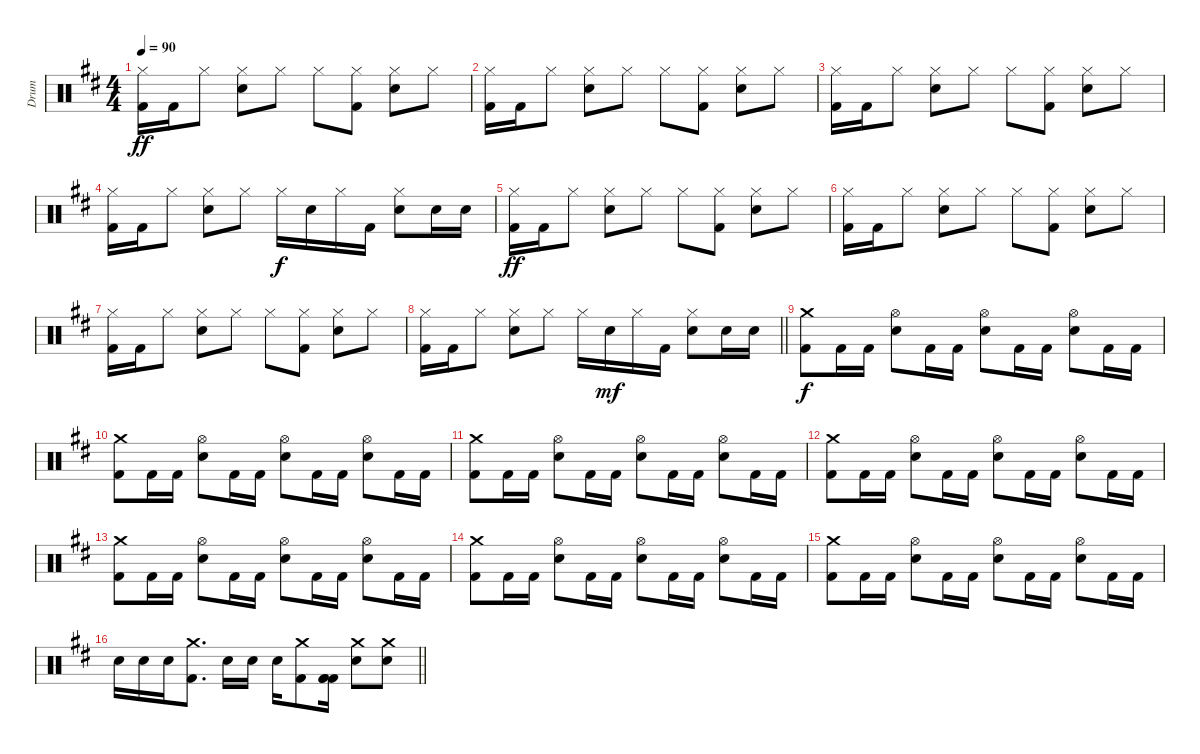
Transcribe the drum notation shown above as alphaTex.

\track ("Drum" "Drum") {instrument percussion}
\staff {score}
\articulation defaults
\ts (4 4)
\tempo 90
\clef neutral
\ks d
("Kick (hit) 2" "Hi-Hat (closed)").16{dy ff} "Kick (hit) 2".16 "Hi-Hat (closed)".8 ("Snare (hit) 2" "Hi-Hat (closed)").8 "Hi-Hat (closed)".8 "Hi-Hat (closed)".8 ("Kick (hit) 2" "Hi-Hat (closed)").8 ("Hi-Hat (closed)" "Snare (hit) 2").8 "Hi-Hat (closed)".8 |
("Kick (hit) 2" "Hi-Hat (closed)").16 "Kick (hit) 2".16 "Hi-Hat (closed)".8 ("Snare (hit) 2" "Hi-Hat (closed)").8 "Hi-Hat (closed)".8 "Hi-Hat (closed)".8 ("Kick (hit) 2" "Hi-Hat (closed)").8 ("Hi-Hat (closed)" "Snare (hit) 2").8 "Hi-Hat (closed)".8 |
("Kick (hit) 2" "Hi-Hat (closed)").16 "Kick (hit) 2".16 "Hi-Hat (closed)".8 ("Snare (hit) 2" "Hi-Hat (closed)").8 "Hi-Hat (closed)".8 "Hi-Hat (closed)".8 ("Kick (hit) 2" "Hi-Hat (closed)").8 ("Hi-Hat (closed)" "Snare (hit) 2").8 "Hi-Hat (closed)".8 |
("Kick (hit) 2" "Hi-Hat (closed)").16 "Kick (hit) 2".16 "Hi-Hat (closed)".8 ("Snare (hit) 2" "Hi-Hat (closed)").8 "Hi-Hat (closed)".8 "Hi-Hat (closed)".16{dy f} "Snare (hit) 2".16 "Hi-Hat (closed)".16 "Kick (hit) 2".16 ("Hi-Hat (closed)" "Snare (hit) 2").8 "Snare (hit) 2".16 "Snare (hit) 2".16 |
("Kick (hit) 2" "Hi-Hat (closed)").16{dy ff} "Kick (hit) 2".16 "Hi-Hat (closed)".8 ("Snare (hit) 2" "Hi-Hat (closed)").8 "Hi-Hat (closed)".8 "Hi-Hat (closed)".8 ("Kick (hit) 2" "Hi-Hat (closed)").8 ("Hi-Hat (closed)" "Snare (hit) 2").8 "Hi-Hat (closed)".8 |
("Kick (hit) 2" "Hi-Hat (closed)").16 "Kick (hit) 2".16 "Hi-Hat (closed)".8 ("Snare (hit) 2" "Hi-Hat (closed)").8 "Hi-Hat (closed)".8 "Hi-Hat (closed)".8 ("Kick (hit) 2" "Hi-Hat (closed)").8 ("Hi-Hat (closed)" "Snare (hit) 2").8 "Hi-Hat (closed)".8 |
("Kick (hit) 2" "Hi-Hat (closed)").16 "Kick (hit) 2".16 "Hi-Hat (closed)".8 ("Snare (hit) 2" "Hi-Hat (closed)").8 "Hi-Hat (closed)".8 "Hi-Hat (closed)".8 ("Kick (hit) 2" "Hi-Hat (closed)").8 ("Hi-Hat (closed)" "Snare (hit) 2").8 "Hi-Hat (closed)".8 |
\barLineRight lightlight
("Kick (hit) 2" "Hi-Hat (closed)").16 "Kick (hit) 2".16 "Hi-Hat (closed)".8 ("Snare (hit) 2" "Hi-Hat (closed)").8 "Hi-Hat (closed)".8 "Hi-Hat (closed)".16 "Snare (hit) 2".16{dy mf} "Hi-Hat (closed)".16 "Kick (hit) 2".16 ("Hi-Hat (closed)" "Snare (hit) 2").8 "Snare (hit) 2".16 "Snare (hit) 2".16 |
("Kick (hit) 2" "Crash medium (hit)").8{dy f} "Kick (hit) 2".16 "Kick (hit) 2".16 ("Snare (hit) 2" "Hi-Hat (open)").8 "Kick (hit) 2".16 "Kick (hit) 2".16 ("Snare (hit) 2" "Hi-Hat (open)").8 "Kick (hit) 2".16 "Kick (hit) 2".16 ("Snare (hit) 2" "Hi-Hat (open)").8 "Kick (hit) 2".16 "Kick (hit) 2".16 |
("Kick (hit) 2" "Crash medium (hit)").8 "Kick (hit) 2".16 "Kick (hit) 2".16 ("Snare (hit) 2" "Hi-Hat (open)").8 "Kick (hit) 2".16 "Kick (hit) 2".16 ("Snare (hit) 2" "Hi-Hat (open)").8 "Kick (hit) 2".16 "Kick (hit) 2".16 ("Snare (hit) 2" "Hi-Hat (open)").8 "Kick (hit) 2".16 "Kick (hit) 2".16 |
("Kick (hit) 2" "Crash medium (hit)").8 "Kick (hit) 2".16 "Kick (hit) 2".16 ("Snare (hit) 2" "Hi-Hat (open)").8 "Kick (hit) 2".16 "Kick (hit) 2".16 ("Snare (hit) 2" "Hi-Hat (open)").8 "Kick (hit) 2".16 "Kick (hit) 2".16 ("Snare (hit) 2" "Hi-Hat (open)").8 "Kick (hit) 2".16 "Kick (hit) 2".16 |
("Kick (hit) 2" "Crash medium (hit)").8 "Kick (hit) 2".16 "Kick (hit) 2".16 ("Snare (hit) 2" "Hi-Hat (open)").8 "Kick (hit) 2".16 "Kick (hit) 2".16 ("Snare (hit) 2" "Hi-Hat (open)").8 "Kick (hit) 2".16 "Kick (hit) 2".16 ("Snare (hit) 2" "Hi-Hat (open)").8 "Kick (hit) 2".16 "Kick (hit) 2".16 |
("Kick (hit) 2" "Crash medium (hit)").8 "Kick (hit) 2".16 "Kick (hit) 2".16 ("Snare (hit) 2" "Hi-Hat (open)").8 "Kick (hit) 2".16 "Kick (hit) 2".16 ("Snare (hit) 2" "Hi-Hat (open)").8 "Kick (hit) 2".16 "Kick (hit) 2".16 ("Snare (hit) 2" "Hi-Hat (open)").8 "Kick (hit) 2".16 "Kick (hit) 2".16 |
("Kick (hit) 2" "Crash medium (hit)").8 "Kick (hit) 2".16 "Kick (hit) 2".16 ("Snare (hit) 2" "Hi-Hat (open)").8 "Kick (hit) 2".16 "Kick (hit) 2".16 ("Snare (hit) 2" "Hi-Hat (open)").8 "Kick (hit) 2".16 "Kick (hit) 2".16 ("Snare (hit) 2" "Hi-Hat (open)").8 "Kick (hit) 2".16 "Kick (hit) 2".16 |
("Kick (hit) 2" "Crash medium (hit)").8 "Kick (hit) 2".16 "Kick (hit) 2".16 ("Snare (hit) 2" "Hi-Hat (open)").8 "Kick (hit) 2".16 "Kick (hit) 2".16 ("Snare (hit) 2" "Hi-Hat (open)").8 "Kick (hit) 2".16 "Kick (hit) 2".16 ("Snare (hit) 2" "Hi-Hat (open)").8 "Kick (hit) 2".16 "Kick (hit) 2".16 |
\barLineRight lightlight "Snare (hit) 2".16 "Snare (hit) 2".16 "Snare (hit) 2".16
("Crash medium (hit)" "Kick (hit) 2").8{d} "Snare (hit) 2".16 "Snare (hit) 2".16 "Snare (hit) 2".16 ("Crash medium (hit)" "Kick (hit) 2").8 ("Kick (hit) 2" "Kick (hit) 2" "Kick (hit) 2").16{bd 480} ("Crash medium (hit)" "Snare (hit) 2").8 ("Crash medium (hit)" "Snare (hit) 2").8
